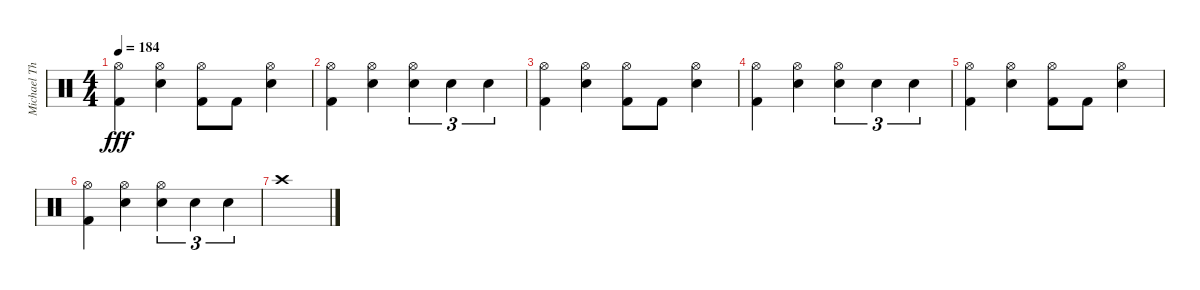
\track ("Michael Thomas - Drums" "Michael Th") {instrument percussion}
\staff {score}
\articulation defaults
\ts (4 4)
\tempo 184
\clef neutral
\ks c
("Hi-Hat (open)" "Kick (hit) 2").4{dy fff} ("Hi-Hat (open)" "Snare (hit) 2").4 ("Hi-Hat (open)" "Kick (hit) 2").8 "Kick (hit) 2".8 ("Hi-Hat (open)" "Snare (hit) 2").4 |
("Hi-Hat (open)" "Kick (hit) 2").4 ("Hi-Hat (open)" "Snare (hit) 2").4 ("Hi-Hat (open)" "Snare (hit) 2").4{tu (3 2)} "Snare (hit) 2".4{tu (3 2)} "Snare (hit) 2".4{tu (3 2)} |
("Hi-Hat (open)" "Kick (hit) 2").4 ("Hi-Hat (open)" "Snare (hit) 2").4 ("Hi-Hat (open)" "Kick (hit) 2").8 "Kick (hit) 2".8 ("Hi-Hat (open)" "Snare (hit) 2").4 |
("Hi-Hat (open)" "Kick (hit) 2").4 ("Hi-Hat (open)" "Snare (hit) 2").4 ("Hi-Hat (open)" "Snare (hit) 2").4{tu (3 2)} "Snare (hit) 2".4{tu (3 2)} "Snare (hit) 2".4{tu (3 2)} |
("Hi-Hat (open)" "Kick (hit) 2").4 ("Hi-Hat (open)" "Snare (hit) 2").4 ("Hi-Hat (open)" "Kick (hit) 2").8 "Kick (hit) 2".8 ("Hi-Hat (open)" "Snare (hit) 2").4 |
("Hi-Hat (open)" "Kick (hit) 2").4 ("Hi-Hat (open)" "Snare (hit) 2").4 ("Hi-Hat (open)" "Snare (hit) 2").4{tu (3 2)} "Snare (hit) 2".4{tu (3 2)} "Snare (hit) 2".4{tu (3 2)} |
"Crash high (hit)".1
